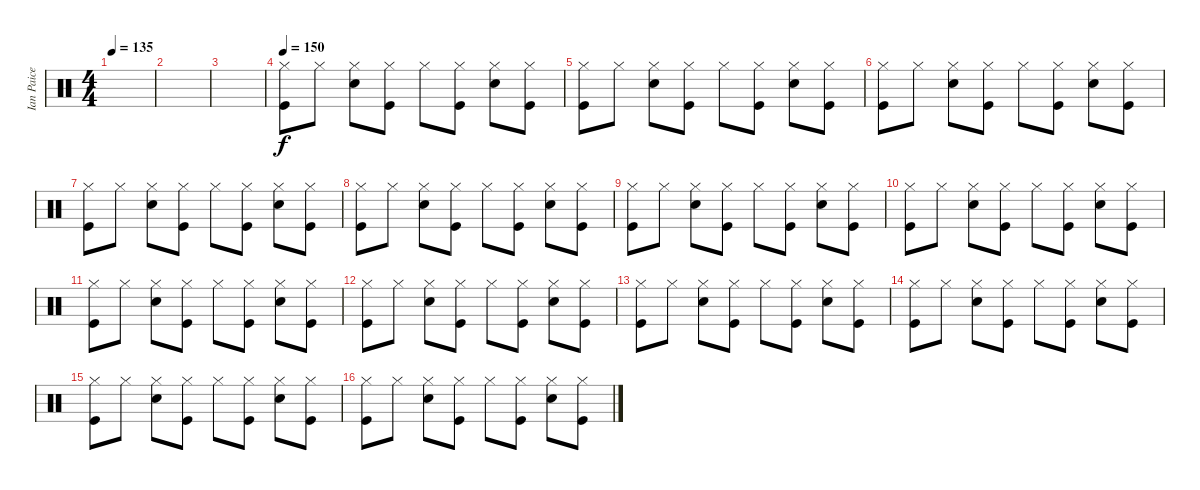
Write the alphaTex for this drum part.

\track ("Ian Paice" "Ian Paice") {instrument percussion}
\staff {score}
\articulation defaults
\ts (4 4)
\tempo 135
\clef neutral
\ks c
|
|
|
\tempo 150
("Hi-Hat (closed)" "Kick (hit)").8 "Hi-Hat (closed)".8 ("Hi-Hat (closed)" "Snare (hit) 2").8 ("Hi-Hat (closed)" "Kick (hit)").8 "Hi-Hat (closed)".8 ("Hi-Hat (closed)" "Kick (hit)").8 ("Hi-Hat (closed)" "Snare (hit) 2").8 ("Hi-Hat (closed)" "Kick (hit)").8 |
("Hi-Hat (closed)" "Kick (hit)").8 "Hi-Hat (closed)".8 ("Hi-Hat (closed)" "Snare (hit) 2").8 ("Hi-Hat (closed)" "Kick (hit)").8 "Hi-Hat (closed)".8 ("Hi-Hat (closed)" "Kick (hit)").8 ("Hi-Hat (closed)" "Snare (hit) 2").8 ("Hi-Hat (closed)" "Kick (hit)").8 |
("Hi-Hat (closed)" "Kick (hit)").8 "Hi-Hat (closed)".8 ("Hi-Hat (closed)" "Snare (hit) 2").8 ("Hi-Hat (closed)" "Kick (hit)").8 "Hi-Hat (closed)".8 ("Hi-Hat (closed)" "Kick (hit)").8 ("Hi-Hat (closed)" "Snare (hit) 2").8 ("Hi-Hat (closed)" "Kick (hit)").8 |
("Hi-Hat (closed)" "Kick (hit)").8 "Hi-Hat (closed)".8 ("Hi-Hat (closed)" "Snare (hit) 2").8 ("Hi-Hat (closed)" "Kick (hit)").8 "Hi-Hat (closed)".8 ("Hi-Hat (closed)" "Kick (hit)").8 ("Hi-Hat (closed)" "Snare (hit) 2").8 ("Hi-Hat (closed)" "Kick (hit)").8 |
("Hi-Hat (closed)" "Kick (hit)").8 "Hi-Hat (closed)".8 ("Hi-Hat (closed)" "Snare (hit) 2").8 ("Hi-Hat (closed)" "Kick (hit)").8 "Hi-Hat (closed)".8 ("Hi-Hat (closed)" "Kick (hit)").8 ("Hi-Hat (closed)" "Snare (hit) 2").8 ("Hi-Hat (closed)" "Kick (hit)").8 |
("Hi-Hat (closed)" "Kick (hit)").8 "Hi-Hat (closed)".8 ("Hi-Hat (closed)" "Snare (hit) 2").8 ("Hi-Hat (closed)" "Kick (hit)").8 "Hi-Hat (closed)".8 ("Hi-Hat (closed)" "Kick (hit)").8 ("Hi-Hat (closed)" "Snare (hit) 2").8 ("Hi-Hat (closed)" "Kick (hit)").8 |
("Hi-Hat (closed)" "Kick (hit)").8 "Hi-Hat (closed)".8 ("Hi-Hat (closed)" "Snare (hit) 2").8 ("Hi-Hat (closed)" "Kick (hit)").8 "Hi-Hat (closed)".8 ("Hi-Hat (closed)" "Kick (hit)").8 ("Hi-Hat (closed)" "Snare (hit) 2").8 ("Hi-Hat (closed)" "Kick (hit)").8 |
("Hi-Hat (closed)" "Kick (hit)").8 "Hi-Hat (closed)".8 ("Hi-Hat (closed)" "Snare (hit) 2").8 ("Hi-Hat (closed)" "Kick (hit)").8 "Hi-Hat (closed)".8 ("Hi-Hat (closed)" "Kick (hit)").8 ("Hi-Hat (closed)" "Snare (hit) 2").8 ("Hi-Hat (closed)" "Kick (hit)").8 |
("Hi-Hat (closed)" "Kick (hit)").8 "Hi-Hat (closed)".8 ("Hi-Hat (closed)" "Snare (hit) 2").8 ("Hi-Hat (closed)" "Kick (hit)").8 "Hi-Hat (closed)".8 ("Hi-Hat (closed)" "Kick (hit)").8 ("Hi-Hat (closed)" "Snare (hit) 2").8 ("Hi-Hat (closed)" "Kick (hit)").8 |
("Hi-Hat (closed)" "Kick (hit)").8 "Hi-Hat (closed)".8 ("Hi-Hat (closed)" "Snare (hit) 2").8 ("Hi-Hat (closed)" "Kick (hit)").8 "Hi-Hat (closed)".8 ("Hi-Hat (closed)" "Kick (hit)").8 ("Hi-Hat (closed)" "Snare (hit) 2").8 ("Hi-Hat (closed)" "Kick (hit)").8 |
("Hi-Hat (closed)" "Kick (hit)").8 "Hi-Hat (closed)".8 ("Hi-Hat (closed)" "Snare (hit) 2").8 ("Hi-Hat (closed)" "Kick (hit)").8 "Hi-Hat (closed)".8 ("Hi-Hat (closed)" "Kick (hit)").8 ("Hi-Hat (closed)" "Snare (hit) 2").8 ("Hi-Hat (closed)" "Kick (hit)").8 |
("Hi-Hat (closed)" "Kick (hit)").8 "Hi-Hat (closed)".8 ("Hi-Hat (closed)" "Snare (hit) 2").8 ("Hi-Hat (closed)" "Kick (hit)").8 "Hi-Hat (closed)".8 ("Hi-Hat (closed)" "Kick (hit)").8 ("Hi-Hat (closed)" "Snare (hit) 2").8 ("Hi-Hat (closed)" "Kick (hit)").8 |
("Hi-Hat (closed)" "Kick (hit)").8 "Hi-Hat (closed)".8 ("Hi-Hat (closed)" "Snare (hit) 2").8 ("Hi-Hat (closed)" "Kick (hit)").8 "Hi-Hat (closed)".8 ("Hi-Hat (closed)" "Kick (hit)").8 ("Hi-Hat (closed)" "Snare (hit) 2").8 ("Hi-Hat (closed)" "Kick (hit)").8
